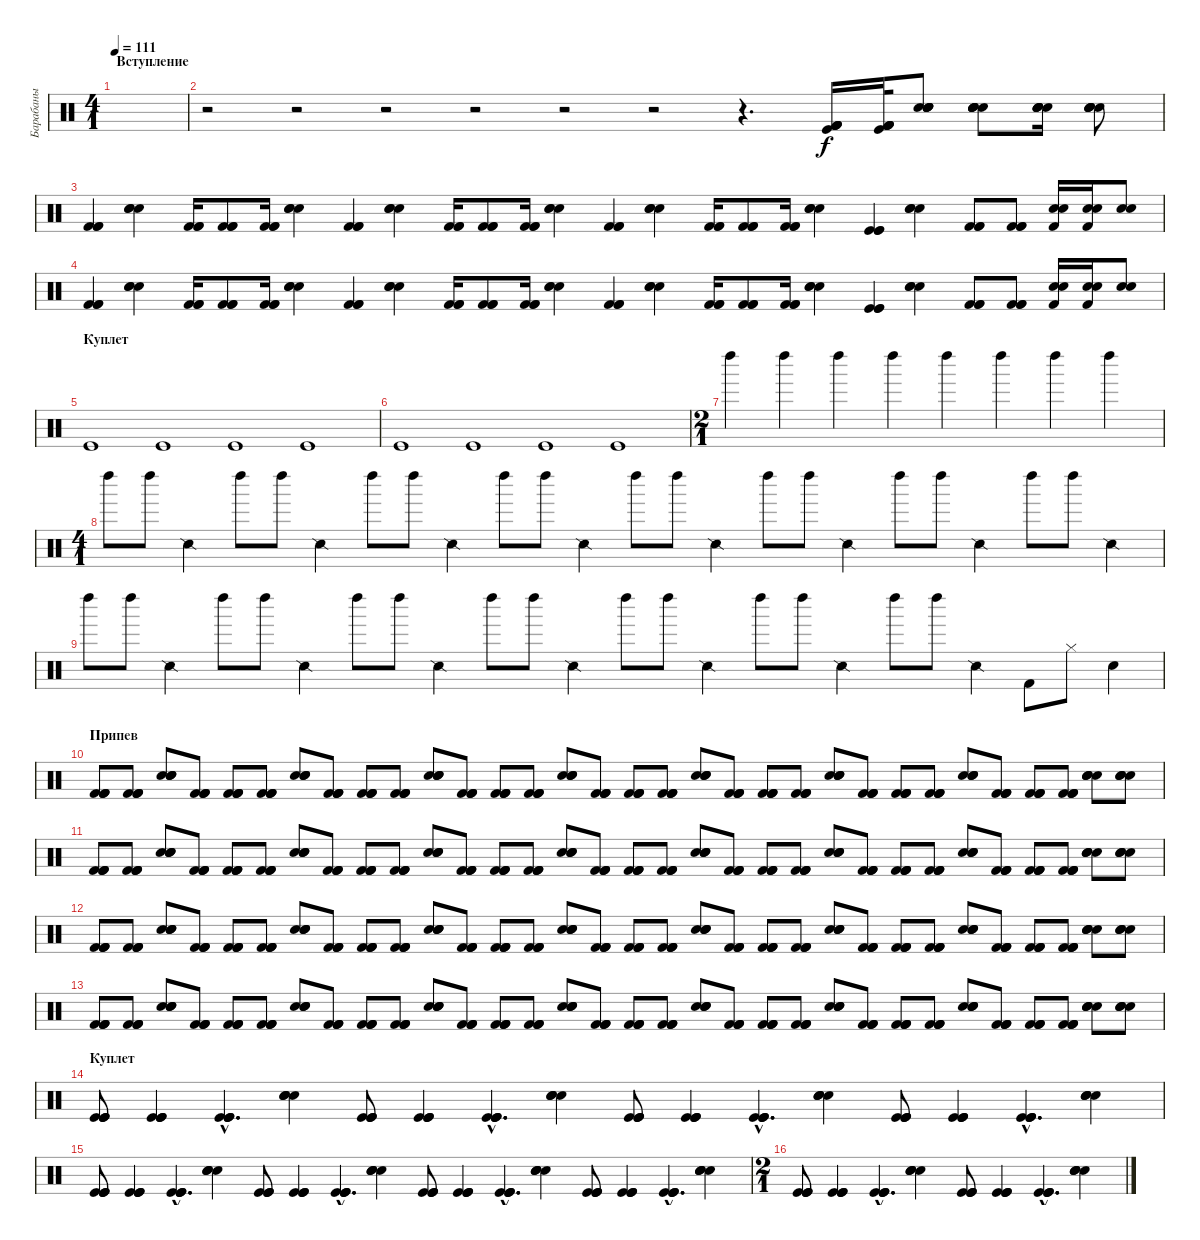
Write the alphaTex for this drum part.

\track ("Барабаны" "Барабаны") {instrument percussion}
\staff {score}
\articulation defaults
\ts (4 1)
\section ("" "Вступление")
\tempo 111
\clef neutral
\ks c
|
r.2 r.2 r.2 r.2 r.2 r.2 r.4{d} ("Kick (hit) 2" "Kick (hit) 2" "Kick (hit) 2" "Kick (hit)" "Kick (hit) 2").16 ("Kick (hit) 2" "Kick (hit) 2" "Kick (hit) 2" "Kick (hit)" "Kick (hit) 2").32 ("Snare (hit) 2" "Snare (hit) 2" "Snare (hit) 2" "Snare (hit) 2" "Snare (hit) 2").8 ("Snare (hit) 2" "Snare (hit) 2" "Snare (hit) 2" "Snare (hit) 2" "Snare (hit) 2").8 ("Snare (hit) 2" "Snare (hit) 2" "Snare (hit) 2" "Snare (hit) 2" "Snare (hit) 2").16 ("Snare (hit) 2" "Snare (hit) 2" "Snare (hit) 2" "Snare (hit) 2" "Snare (hit) 2").8 |
("Kick (hit) 2" "Kick (hit) 2" "Kick (hit) 2").4 ("Snare (hit) 2" "Snare (hit) 2" "Snare (hit) 2").4 ("Kick (hit) 2" "Kick (hit) 2" "Kick (hit) 2").16 ("Kick (hit) 2" "Kick (hit) 2" "Kick (hit) 2").8 ("Kick (hit) 2" "Kick (hit) 2" "Kick (hit) 2").16 ("Snare (hit) 2" "Snare (hit) 2" "Snare (hit) 2").4 ("Kick (hit) 2" "Kick (hit) 2" "Kick (hit) 2").4 ("Snare (hit) 2" "Snare (hit) 2" "Snare (hit) 2").4 ("Kick (hit) 2" "Kick (hit) 2" "Kick (hit) 2").16 ("Kick (hit) 2" "Kick (hit) 2" "Kick (hit) 2").8 ("Kick (hit) 2" "Kick (hit) 2" "Kick (hit) 2").16 ("Snare (hit) 2" "Snare (hit) 2" "Snare (hit) 2").4 ("Kick (hit) 2" "Kick (hit) 2" "Kick (hit) 2").4 ("Snare (hit) 2" "Snare (hit) 2" "Snare (hit) 2").4 ("Kick (hit) 2" "Kick (hit) 2" "Kick (hit) 2").16 ("Kick (hit) 2" "Kick (hit) 2" "Kick (hit) 2").8 ("Kick (hit) 2" "Kick (hit) 2" "Kick (hit) 2").16 ("Snare (hit) 2" "Snare (hit) 2" "Snare (hit) 2").4 ("Kick (hit)" "Kick (hit)" "Kick (hit)").4 ("Snare (hit) 2" "Snare (hit) 2" "Snare (hit) 2").4 ("Kick (hit) 2" "Kick (hit) 2" "Kick (hit) 2").8 ("Kick (hit) 2" "Kick (hit) 2" "Kick (hit) 2").8 ("Snare (hit) 2" "Snare (hit) 2" "Kick (hit) 2").16 ("Snare (hit) 2" "Snare (hit) 2" "Kick (hit) 2").16 ("Snare (hit) 2" "Snare (hit) 2").8 |
("Kick (hit) 2" "Kick (hit) 2" "Kick (hit) 2").4 ("Snare (hit) 2" "Snare (hit) 2" "Snare (hit) 2").4 ("Kick (hit) 2" "Kick (hit) 2" "Kick (hit) 2").16 ("Kick (hit) 2" "Kick (hit) 2" "Kick (hit) 2").8 ("Kick (hit) 2" "Kick (hit) 2" "Kick (hit) 2").16 ("Snare (hit) 2" "Snare (hit) 2" "Snare (hit) 2").4 ("Kick (hit) 2" "Kick (hit) 2" "Kick (hit) 2").4 ("Snare (hit) 2" "Snare (hit) 2" "Snare (hit) 2").4 ("Kick (hit) 2" "Kick (hit) 2" "Kick (hit) 2").16 ("Kick (hit) 2" "Kick (hit) 2" "Kick (hit) 2").8 ("Kick (hit) 2" "Kick (hit) 2" "Kick (hit) 2").16 ("Snare (hit) 2" "Snare (hit) 2" "Snare (hit) 2").4 ("Kick (hit) 2" "Kick (hit) 2" "Kick (hit) 2").4 ("Snare (hit) 2" "Snare (hit) 2" "Snare (hit) 2").4 ("Kick (hit) 2" "Kick (hit) 2" "Kick (hit) 2").16 ("Kick (hit) 2" "Kick (hit) 2" "Kick (hit) 2").8 ("Kick (hit) 2" "Kick (hit) 2" "Kick (hit) 2").16 ("Snare (hit) 2" "Snare (hit) 2" "Snare (hit) 2").4 ("Kick (hit)" "Kick (hit)" "Kick (hit)").4 ("Snare (hit) 2" "Snare (hit) 2" "Snare (hit) 2").4 ("Kick (hit) 2" "Kick (hit) 2" "Kick (hit) 2").8 ("Kick (hit) 2" "Kick (hit) 2" "Kick (hit) 2").8 ("Snare (hit) 2" "Snare (hit) 2" "Kick (hit) 2").16 ("Snare (hit) 2" "Snare (hit) 2" "Kick (hit) 2").16 ("Snare (hit) 2" "Snare (hit) 2").8 |
\section ("" "Куплет")
"Kick (hit)".1 "Kick (hit)".1 "Kick (hit)".1 "Kick (hit)".1 |
"Kick (hit)".1 "Kick (hit)".1 "Kick (hit)".1 "Kick (hit)".1 |
\ts (2 1)
"Left Maraca (hit)".4 "Left Maraca (hit)".4 "Left Maraca (hit)".4 "Left Maraca (hit)".4 "Left Maraca (hit)".4 "Left Maraca (hit)".4 "Left Maraca (hit)".4 "Left Maraca (hit)".4 |
\ts (4 1)
"Left Maraca (hit)".8 "Left Maraca (hit)".8 "Snare (side stick) 2".4 "Left Maraca (hit)".8 "Left Maraca (hit)".8 "Snare (side stick) 2".4 "Left Maraca (hit)".8 "Left Maraca (hit)".8 "Snare (side stick) 2".4 "Left Maraca (hit)".8 "Left Maraca (hit)".8 "Snare (side stick) 2".4 "Left Maraca (hit)".8 "Left Maraca (hit)".8 "Snare (side stick) 2".4 "Left Maraca (hit)".8 "Left Maraca (hit)".8 "Snare (side stick) 2".4 "Left Maraca (hit)".8 "Left Maraca (hit)".8 "Snare (side stick) 2".4 "Left Maraca (hit)".8 "Left Maraca (hit)".8 "Snare (side stick) 2".4 |
"Left Maraca (hit)".8 "Left Maraca (hit)".8 "Snare (side stick) 2".4 "Left Maraca (hit)".8 "Left Maraca (hit)".8 "Snare (side stick) 2".4 "Left Maraca (hit)".8 "Left Maraca (hit)".8 "Snare (side stick) 2".4 "Left Maraca (hit)".8 "Left Maraca (hit)".8 "Snare (side stick) 2".4 "Left Maraca (hit)".8 "Left Maraca (hit)".8 "Snare (side stick) 2".4 "Left Maraca (hit)".8 "Left Maraca (hit)".8 "Snare (side stick) 2".4 "Left Maraca (hit)".8 "Left Maraca (hit)".8 "Snare (side stick) 2".4 "Kick (hit) 2".8 "Hi-Hat (closed)".8 "Snare (hit) 2".4 |
\section ("" "Припев")
("Kick (hit) 2" "Kick (hit) 2" "Kick (hit) 2" "Kick (hit) 2").8 ("Kick (hit) 2" "Kick (hit) 2" "Kick (hit) 2" "Kick (hit) 2").8 ("Snare (hit) 2" "Snare (hit) 2" "Snare (hit) 2" "Snare (hit) 2").8 ("Kick (hit) 2" "Kick (hit) 2" "Kick (hit) 2" "Kick (hit) 2").8 ("Kick (hit) 2" "Kick (hit) 2" "Kick (hit) 2" "Kick (hit) 2").8 ("Kick (hit) 2" "Kick (hit) 2" "Kick (hit) 2" "Kick (hit) 2").8 ("Snare (hit) 2" "Snare (hit) 2" "Snare (hit) 2" "Snare (hit) 2").8 ("Kick (hit) 2" "Kick (hit) 2" "Kick (hit) 2" "Kick (hit) 2").8 ("Kick (hit) 2" "Kick (hit) 2" "Kick (hit) 2" "Kick (hit) 2").8 ("Kick (hit) 2" "Kick (hit) 2" "Kick (hit) 2" "Kick (hit) 2").8 ("Snare (hit) 2" "Snare (hit) 2" "Snare (hit) 2" "Snare (hit) 2").8 ("Kick (hit) 2" "Kick (hit) 2" "Kick (hit) 2" "Kick (hit) 2").8 ("Kick (hit) 2" "Kick (hit) 2" "Kick (hit) 2" "Kick (hit) 2").8 ("Kick (hit) 2" "Kick (hit) 2" "Kick (hit) 2" "Kick (hit) 2").8 ("Snare (hit) 2" "Snare (hit) 2" "Snare (hit) 2" "Snare (hit) 2").8 ("Kick (hit) 2" "Kick (hit) 2" "Kick (hit) 2" "Kick (hit) 2").8 ("Kick (hit) 2" "Kick (hit) 2" "Kick (hit) 2" "Kick (hit) 2").8 ("Kick (hit) 2" "Kick (hit) 2" "Kick (hit) 2" "Kick (hit) 2").8 ("Snare (hit) 2" "Snare (hit) 2" "Snare (hit) 2" "Snare (hit) 2").8 ("Kick (hit) 2" "Kick (hit) 2" "Kick (hit) 2" "Kick (hit) 2").8 ("Kick (hit) 2" "Kick (hit) 2" "Kick (hit) 2" "Kick (hit) 2").8 ("Kick (hit) 2" "Kick (hit) 2" "Kick (hit) 2" "Kick (hit) 2").8 ("Snare (hit) 2" "Snare (hit) 2" "Snare (hit) 2" "Snare (hit) 2").8 ("Kick (hit) 2" "Kick (hit) 2" "Kick (hit) 2" "Kick (hit) 2").8 ("Kick (hit) 2" "Kick (hit) 2" "Kick (hit) 2" "Kick (hit) 2").8 ("Kick (hit) 2" "Kick (hit) 2" "Kick (hit) 2" "Kick (hit) 2").8 ("Snare (hit) 2" "Snare (hit) 2" "Snare (hit) 2" "Snare (hit) 2").8 ("Kick (hit) 2" "Kick (hit) 2" "Kick (hit) 2" "Kick (hit) 2").8 ("Kick (hit) 2" "Kick (hit) 2" "Kick (hit) 2" "Kick (hit) 2").8 ("Kick (hit) 2" "Kick (hit) 2" "Kick (hit) 2" "Kick (hit) 2").8 ("Snare (hit) 2" "Snare (hit) 2" "Snare (hit) 2" "Snare (hit) 2").8 ("Snare (hit) 2" "Snare (hit) 2" "Snare (hit) 2" "Snare (hit) 2").8 |
("Kick (hit) 2" "Kick (hit) 2" "Kick (hit) 2" "Kick (hit) 2").8 ("Kick (hit) 2" "Kick (hit) 2" "Kick (hit) 2" "Kick (hit) 2").8 ("Snare (hit) 2" "Snare (hit) 2" "Snare (hit) 2" "Snare (hit) 2").8 ("Kick (hit) 2" "Kick (hit) 2" "Kick (hit) 2" "Kick (hit) 2").8 ("Kick (hit) 2" "Kick (hit) 2" "Kick (hit) 2" "Kick (hit) 2").8 ("Kick (hit) 2" "Kick (hit) 2" "Kick (hit) 2" "Kick (hit) 2").8 ("Snare (hit) 2" "Snare (hit) 2" "Snare (hit) 2" "Snare (hit) 2").8 ("Kick (hit) 2" "Kick (hit) 2" "Kick (hit) 2" "Kick (hit) 2").8 ("Kick (hit) 2" "Kick (hit) 2" "Kick (hit) 2" "Kick (hit) 2").8 ("Kick (hit) 2" "Kick (hit) 2" "Kick (hit) 2" "Kick (hit) 2").8 ("Snare (hit) 2" "Snare (hit) 2" "Snare (hit) 2" "Snare (hit) 2").8 ("Kick (hit) 2" "Kick (hit) 2" "Kick (hit) 2" "Kick (hit) 2").8 ("Kick (hit) 2" "Kick (hit) 2" "Kick (hit) 2" "Kick (hit) 2").8 ("Kick (hit) 2" "Kick (hit) 2" "Kick (hit) 2" "Kick (hit) 2").8 ("Snare (hit) 2" "Snare (hit) 2" "Snare (hit) 2" "Snare (hit) 2").8 ("Kick (hit) 2" "Kick (hit) 2" "Kick (hit) 2" "Kick (hit) 2").8 ("Kick (hit) 2" "Kick (hit) 2" "Kick (hit) 2" "Kick (hit) 2").8 ("Kick (hit) 2" "Kick (hit) 2" "Kick (hit) 2" "Kick (hit) 2").8 ("Snare (hit) 2" "Snare (hit) 2" "Snare (hit) 2" "Snare (hit) 2").8 ("Kick (hit) 2" "Kick (hit) 2" "Kick (hit) 2" "Kick (hit) 2").8 ("Kick (hit) 2" "Kick (hit) 2" "Kick (hit) 2" "Kick (hit) 2").8 ("Kick (hit) 2" "Kick (hit) 2" "Kick (hit) 2" "Kick (hit) 2").8 ("Snare (hit) 2" "Snare (hit) 2" "Snare (hit) 2" "Snare (hit) 2").8 ("Kick (hit) 2" "Kick (hit) 2" "Kick (hit) 2" "Kick (hit) 2").8 ("Kick (hit) 2" "Kick (hit) 2" "Kick (hit) 2" "Kick (hit) 2").8 ("Kick (hit) 2" "Kick (hit) 2" "Kick (hit) 2" "Kick (hit) 2").8 ("Snare (hit) 2" "Snare (hit) 2" "Snare (hit) 2" "Snare (hit) 2").8 ("Kick (hit) 2" "Kick (hit) 2" "Kick (hit) 2" "Kick (hit) 2").8 ("Kick (hit) 2" "Kick (hit) 2" "Kick (hit) 2" "Kick (hit) 2").8 ("Kick (hit) 2" "Kick (hit) 2" "Kick (hit) 2" "Kick (hit) 2").8 ("Snare (hit) 2" "Snare (hit) 2" "Snare (hit) 2" "Snare (hit) 2").8 ("Snare (hit) 2" "Snare (hit) 2" "Snare (hit) 2" "Snare (hit) 2").8 |
("Kick (hit) 2" "Kick (hit) 2" "Kick (hit) 2" "Kick (hit) 2").8 ("Kick (hit) 2" "Kick (hit) 2" "Kick (hit) 2" "Kick (hit) 2").8 ("Snare (hit) 2" "Snare (hit) 2" "Snare (hit) 2" "Snare (hit) 2").8 ("Kick (hit) 2" "Kick (hit) 2" "Kick (hit) 2" "Kick (hit) 2").8 ("Kick (hit) 2" "Kick (hit) 2" "Kick (hit) 2" "Kick (hit) 2").8 ("Kick (hit) 2" "Kick (hit) 2" "Kick (hit) 2" "Kick (hit) 2").8 ("Snare (hit) 2" "Snare (hit) 2" "Snare (hit) 2" "Snare (hit) 2").8 ("Kick (hit) 2" "Kick (hit) 2" "Kick (hit) 2" "Kick (hit) 2").8 ("Kick (hit) 2" "Kick (hit) 2" "Kick (hit) 2" "Kick (hit) 2").8 ("Kick (hit) 2" "Kick (hit) 2" "Kick (hit) 2" "Kick (hit) 2").8 ("Snare (hit) 2" "Snare (hit) 2" "Snare (hit) 2" "Snare (hit) 2").8 ("Kick (hit) 2" "Kick (hit) 2" "Kick (hit) 2" "Kick (hit) 2").8 ("Kick (hit) 2" "Kick (hit) 2" "Kick (hit) 2" "Kick (hit) 2").8 ("Kick (hit) 2" "Kick (hit) 2" "Kick (hit) 2" "Kick (hit) 2").8 ("Snare (hit) 2" "Snare (hit) 2" "Snare (hit) 2" "Snare (hit) 2").8 ("Kick (hit) 2" "Kick (hit) 2" "Kick (hit) 2" "Kick (hit) 2").8 ("Kick (hit) 2" "Kick (hit) 2" "Kick (hit) 2" "Kick (hit) 2").8 ("Kick (hit) 2" "Kick (hit) 2" "Kick (hit) 2" "Kick (hit) 2").8 ("Snare (hit) 2" "Snare (hit) 2" "Snare (hit) 2" "Snare (hit) 2").8 ("Kick (hit) 2" "Kick (hit) 2" "Kick (hit) 2" "Kick (hit) 2").8 ("Kick (hit) 2" "Kick (hit) 2" "Kick (hit) 2" "Kick (hit) 2").8 ("Kick (hit) 2" "Kick (hit) 2" "Kick (hit) 2" "Kick (hit) 2").8 ("Snare (hit) 2" "Snare (hit) 2" "Snare (hit) 2" "Snare (hit) 2").8 ("Kick (hit) 2" "Kick (hit) 2" "Kick (hit) 2" "Kick (hit) 2").8 ("Kick (hit) 2" "Kick (hit) 2" "Kick (hit) 2" "Kick (hit) 2").8 ("Kick (hit) 2" "Kick (hit) 2" "Kick (hit) 2" "Kick (hit) 2").8 ("Snare (hit) 2" "Snare (hit) 2" "Snare (hit) 2" "Snare (hit) 2").8 ("Kick (hit) 2" "Kick (hit) 2" "Kick (hit) 2" "Kick (hit) 2").8 ("Kick (hit) 2" "Kick (hit) 2" "Kick (hit) 2" "Kick (hit) 2").8 ("Kick (hit) 2" "Kick (hit) 2" "Kick (hit) 2" "Kick (hit) 2").8 ("Snare (hit) 2" "Snare (hit) 2" "Snare (hit) 2" "Snare (hit) 2").8 ("Snare (hit) 2" "Snare (hit) 2" "Snare (hit) 2" "Snare (hit) 2").8 |
("Kick (hit) 2" "Kick (hit) 2" "Kick (hit) 2" "Kick (hit) 2").8 ("Kick (hit) 2" "Kick (hit) 2" "Kick (hit) 2" "Kick (hit) 2").8 ("Snare (hit) 2" "Snare (hit) 2" "Snare (hit) 2" "Snare (hit) 2").8 ("Kick (hit) 2" "Kick (hit) 2" "Kick (hit) 2" "Kick (hit) 2").8 ("Kick (hit) 2" "Kick (hit) 2" "Kick (hit) 2" "Kick (hit) 2").8 ("Kick (hit) 2" "Kick (hit) 2" "Kick (hit) 2" "Kick (hit) 2").8 ("Snare (hit) 2" "Snare (hit) 2" "Snare (hit) 2" "Snare (hit) 2").8 ("Kick (hit) 2" "Kick (hit) 2" "Kick (hit) 2" "Kick (hit) 2").8 ("Kick (hit) 2" "Kick (hit) 2" "Kick (hit) 2" "Kick (hit) 2").8 ("Kick (hit) 2" "Kick (hit) 2" "Kick (hit) 2" "Kick (hit) 2").8 ("Snare (hit) 2" "Snare (hit) 2" "Snare (hit) 2" "Snare (hit) 2").8 ("Kick (hit) 2" "Kick (hit) 2" "Kick (hit) 2" "Kick (hit) 2").8 ("Kick (hit) 2" "Kick (hit) 2" "Kick (hit) 2" "Kick (hit) 2").8 ("Kick (hit) 2" "Kick (hit) 2" "Kick (hit) 2" "Kick (hit) 2").8 ("Snare (hit) 2" "Snare (hit) 2" "Snare (hit) 2" "Snare (hit) 2").8 ("Kick (hit) 2" "Kick (hit) 2" "Kick (hit) 2" "Kick (hit) 2").8 ("Kick (hit) 2" "Kick (hit) 2" "Kick (hit) 2" "Kick (hit) 2").8 ("Kick (hit) 2" "Kick (hit) 2" "Kick (hit) 2" "Kick (hit) 2").8 ("Snare (hit) 2" "Snare (hit) 2" "Snare (hit) 2" "Snare (hit) 2").8 ("Kick (hit) 2" "Kick (hit) 2" "Kick (hit) 2" "Kick (hit) 2").8 ("Kick (hit) 2" "Kick (hit) 2" "Kick (hit) 2" "Kick (hit) 2").8 ("Kick (hit) 2" "Kick (hit) 2" "Kick (hit) 2" "Kick (hit) 2").8 ("Snare (hit) 2" "Snare (hit) 2" "Snare (hit) 2" "Snare (hit) 2").8 ("Kick (hit) 2" "Kick (hit) 2" "Kick (hit) 2" "Kick (hit) 2").8 ("Kick (hit) 2" "Kick (hit) 2" "Kick (hit) 2" "Kick (hit) 2").8 ("Kick (hit) 2" "Kick (hit) 2" "Kick (hit) 2" "Kick (hit) 2").8 ("Snare (hit) 2" "Snare (hit) 2" "Snare (hit) 2" "Snare (hit) 2").8 ("Kick (hit) 2" "Kick (hit) 2" "Kick (hit) 2" "Kick (hit) 2").8 ("Kick (hit) 2" "Kick (hit) 2" "Kick (hit) 2" "Kick (hit) 2").8 ("Kick (hit) 2" "Kick (hit) 2" "Kick (hit) 2" "Kick (hit) 2").8 ("Snare (hit) 2" "Snare (hit) 2" "Snare (hit) 2" "Snare (hit) 2").8 ("Snare (hit) 2" "Snare (hit) 2" "Snare (hit) 2" "Snare (hit) 2").8 |
\section ("" "Куплет")
("Kick (hit)" "Kick (hit)" "Kick (hit)" "Kick (hit)").8 ("Kick (hit)" "Kick (hit)" "Kick (hit)" "Kick (hit)").4 ("Kick (hit)"{hac} "Kick (hit)"{hac} "Kick (hit)"{hac} "Kick (hit)"{hac}).4{d} ("Snare (hit) 2" "Snare (hit) 2" "Snare (hit) 2" "Snare (hit) 2").4 ("Kick (hit)" "Kick (hit)" "Kick (hit)" "Kick (hit)").8 ("Kick (hit)" "Kick (hit)" "Kick (hit)" "Kick (hit)").4 ("Kick (hit)"{hac} "Kick (hit)"{hac} "Kick (hit)"{hac} "Kick (hit)"{hac}).4{d} ("Snare (hit) 2" "Snare (hit) 2" "Snare (hit) 2" "Snare (hit) 2").4 ("Kick (hit)" "Kick (hit)" "Kick (hit)" "Kick (hit)").8 ("Kick (hit)" "Kick (hit)" "Kick (hit)" "Kick (hit)").4 ("Kick (hit)"{hac} "Kick (hit)"{hac} "Kick (hit)"{hac} "Kick (hit)"{hac}).4{d} ("Snare (hit) 2" "Snare (hit) 2" "Snare (hit) 2" "Snare (hit) 2").4 ("Kick (hit)" "Kick (hit)" "Kick (hit)" "Kick (hit)").8 ("Kick (hit)" "Kick (hit)" "Kick (hit)" "Kick (hit)").4 ("Kick (hit)"{hac} "Kick (hit)"{hac} "Kick (hit)"{hac} "Kick (hit)"{hac}).4{d} ("Snare (hit) 2" "Snare (hit) 2" "Snare (hit) 2" "Snare (hit) 2").4 |
("Kick (hit)" "Kick (hit)" "Kick (hit)" "Kick (hit)").8 ("Kick (hit)" "Kick (hit)" "Kick (hit)" "Kick (hit)").4 ("Kick (hit)"{hac} "Kick (hit)"{hac} "Kick (hit)"{hac} "Kick (hit)"{hac}).4{d} ("Snare (hit) 2" "Snare (hit) 2" "Snare (hit) 2" "Snare (hit) 2").4 ("Kick (hit)" "Kick (hit)" "Kick (hit)" "Kick (hit)").8 ("Kick (hit)" "Kick (hit)" "Kick (hit)" "Kick (hit)").4 ("Kick (hit)"{hac} "Kick (hit)"{hac} "Kick (hit)"{hac} "Kick (hit)"{hac}).4{d} ("Snare (hit) 2" "Snare (hit) 2" "Snare (hit) 2" "Snare (hit) 2").4 ("Kick (hit)" "Kick (hit)" "Kick (hit)" "Kick (hit)").8 ("Kick (hit)" "Kick (hit)" "Kick (hit)" "Kick (hit)").4 ("Kick (hit)"{hac} "Kick (hit)"{hac} "Kick (hit)"{hac} "Kick (hit)"{hac}).4{d} ("Snare (hit) 2" "Snare (hit) 2" "Snare (hit) 2" "Snare (hit) 2").4 ("Kick (hit)" "Kick (hit)" "Kick (hit)" "Kick (hit)").8 ("Kick (hit)" "Kick (hit)" "Kick (hit)" "Kick (hit)").4 ("Kick (hit)"{hac} "Kick (hit)"{hac} "Kick (hit)"{hac} "Kick (hit)"{hac}).4{d} ("Snare (hit) 2" "Snare (hit) 2" "Snare (hit) 2" "Snare (hit) 2").4 |
\ts (2 1)
("Kick (hit)" "Kick (hit)" "Kick (hit)" "Kick (hit)").8 ("Kick (hit)" "Kick (hit)" "Kick (hit)" "Kick (hit)").4 ("Kick (hit)"{hac} "Kick (hit)"{hac} "Kick (hit)"{hac} "Kick (hit)"{hac}).4{d} ("Snare (hit) 2" "Snare (hit) 2" "Snare (hit) 2" "Snare (hit) 2").4 ("Kick (hit)" "Kick (hit)" "Kick (hit)" "Kick (hit)").8 ("Kick (hit)" "Kick (hit)" "Kick (hit)" "Kick (hit)").4 ("Kick (hit)"{hac} "Kick (hit)"{hac} "Kick (hit)"{hac} "Kick (hit)"{hac}).4{d} ("Snare (hit) 2" "Snare (hit) 2" "Snare (hit) 2" "Snare (hit) 2").4
